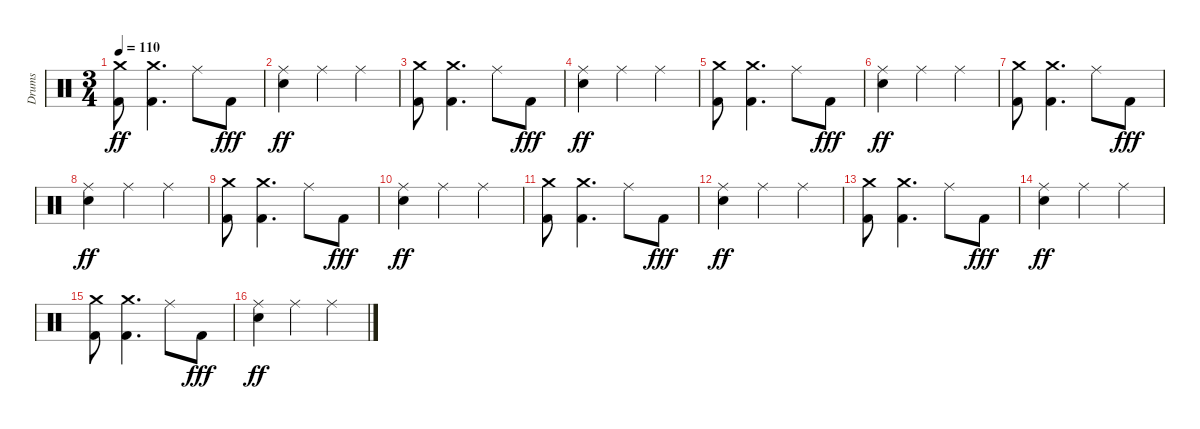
\track ("Drums" "Drums") {instrument percussion}
\staff {score}
\articulation defaults
\ts (3 4)
\tempo 110
\clef neutral
\ks c
("Crash medium (hit)" "Kick (hit) 2").8{dy ff} ("Crash medium (hit)" "Kick (hit) 2").4{d} "Ride (middle)".8 "Kick (hit) 2".8{dy fff} |
("Ride (middle)" "Snare (hit) 2").4{dy ff} "Ride (middle)".4 "Ride (middle)".4 |
("Crash medium (hit)" "Kick (hit) 2").8 ("Crash medium (hit)" "Kick (hit) 2").4{d} "Ride (middle)".8 "Kick (hit) 2".8{dy fff} |
("Ride (middle)" "Snare (hit) 2").4{dy ff} "Ride (middle)".4 "Ride (middle)".4 |
("Crash medium (hit)" "Kick (hit) 2").8 ("Crash medium (hit)" "Kick (hit) 2").4{d} "Ride (middle)".8 "Kick (hit) 2".8{dy fff} |
("Ride (middle)" "Snare (hit) 2").4{dy ff} "Ride (middle)".4 "Ride (middle)".4 |
("Crash medium (hit)" "Kick (hit) 2").8 ("Crash medium (hit)" "Kick (hit) 2").4{d} "Ride (middle)".8 "Kick (hit) 2".8{dy fff} |
("Ride (middle)" "Snare (hit) 2").4{dy ff} "Ride (middle)".4 "Ride (middle)".4 |
("Crash medium (hit)" "Kick (hit) 2").8 ("Crash medium (hit)" "Kick (hit) 2").4{d} "Ride (middle)".8 "Kick (hit) 2".8{dy fff} |
("Ride (middle)" "Snare (hit) 2").4{dy ff} "Ride (middle)".4 "Ride (middle)".4 |
("Crash medium (hit)" "Kick (hit) 2").8 ("Crash medium (hit)" "Kick (hit) 2").4{d} "Ride (middle)".8 "Kick (hit) 2".8{dy fff} |
("Ride (middle)" "Snare (hit) 2").4{dy ff} "Ride (middle)".4 "Ride (middle)".4 |
("Crash medium (hit)" "Kick (hit) 2").8 ("Crash medium (hit)" "Kick (hit) 2").4{d} "Ride (middle)".8 "Kick (hit) 2".8{dy fff} |
("Ride (middle)" "Snare (hit) 2").4{dy ff} "Ride (middle)".4 "Ride (middle)".4 |
("Crash medium (hit)" "Kick (hit) 2").8 ("Crash medium (hit)" "Kick (hit) 2").4{d} "Ride (middle)".8 "Kick (hit) 2".8{dy fff} |
("Ride (middle)" "Snare (hit) 2").4{dy ff} "Ride (middle)".4 "Ride (middle)".4
